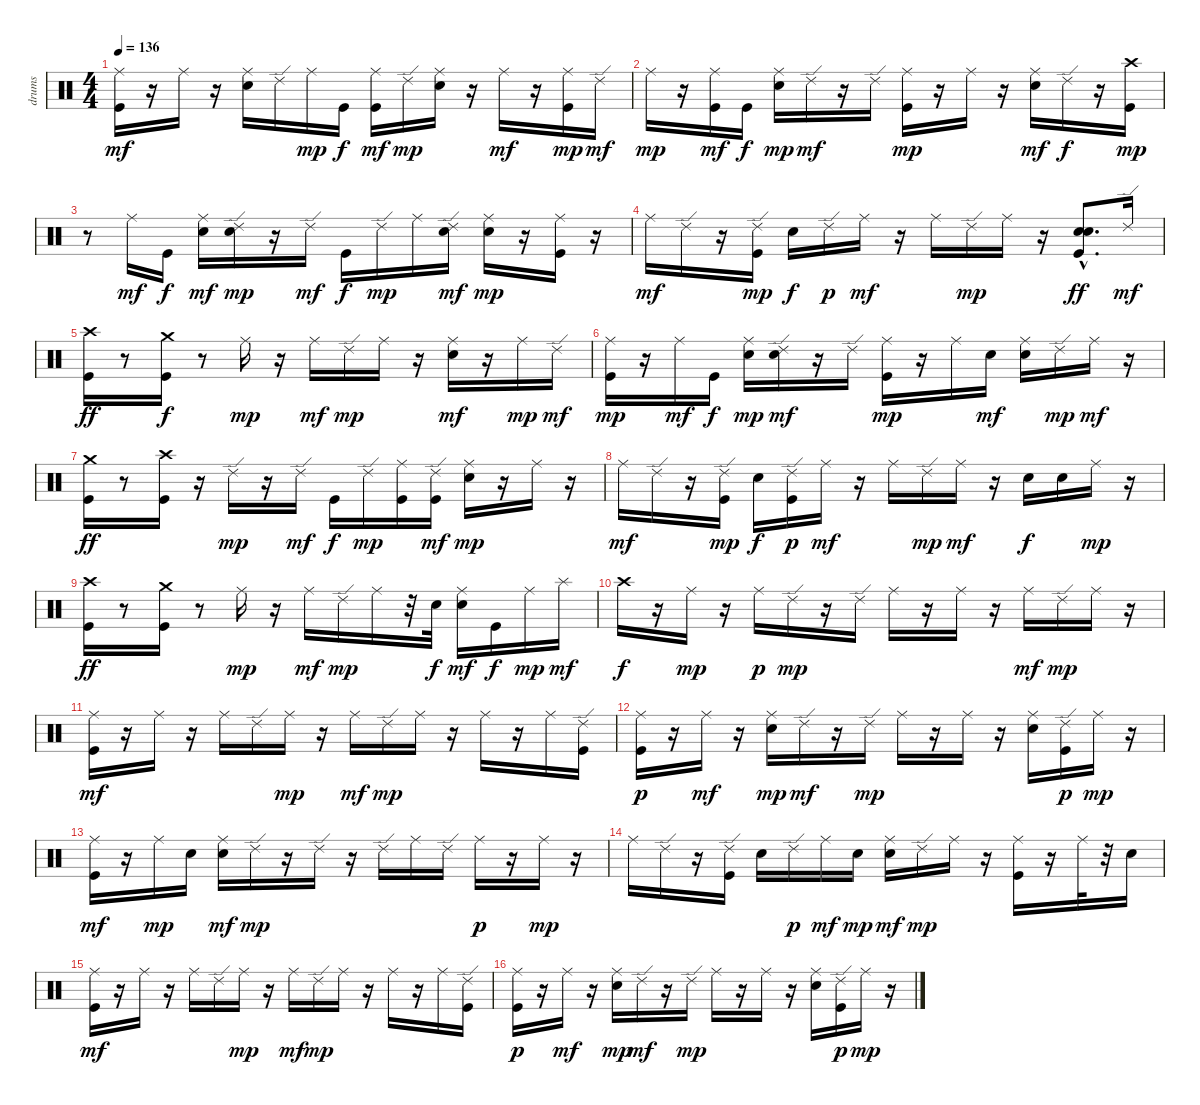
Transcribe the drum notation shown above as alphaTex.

\track ("drums   " "drums   ") {instrument percussion}
\staff {score}
\articulation defaults
\ts (4 4)
\tempo 136
\clef neutral
\ks c
("Kick (hit)" "Ride (middle)").16{dy mf} r.16 "Ride (middle)".16 r.16 ("Electric Snare (hit)" "Ride (middle)").16 "Ride (edge) 2".16 "Ride (middle)".16{dy mp} "Kick (hit)".16{dy f} ("Kick (hit)" "Ride (middle)").16{dy mf} "Ride (edge) 2".16{dy mp} ("Electric Snare (hit)" "Ride (middle)").16 r.16 "Ride (middle)".16{dy mf} r.16 ("Kick (hit)" "Ride (middle)").16{dy mp} "Ride (edge) 2".16{dy mf} |
"Ride (middle)".16{dy mp} r.16 ("Kick (hit)" "Ride (middle)").16{dy mf} "Kick (hit)".16{dy f} ("Electric Snare (hit)" "Ride (middle)").16{dy mp} "Ride (edge) 2".16{dy mf} r.16 "Ride (edge) 2".16 ("Kick (hit)" "Ride (middle)").16{dy mp} r.16 "Ride (middle)".16 r.16 ("Electric Snare (hit)" "Ride (middle)").16{dy mf} "Ride (edge) 2".16{dy f} r.16 ("Crash high (hit)" "Kick (hit)").16{dy mp} |
r.8 "Ride (middle)".16{dy mf} "Kick (hit)".16{dy f} ("Electric Snare (hit)" "Ride (middle)").16{dy mf} ("Electric Snare (hit)" "Ride (edge) 2").16{dy mp} r.16 "Ride (edge) 2".16{dy mf} "Kick (hit)".16{dy f} "Ride (edge) 2".16{dy mp} "Ride (middle)".16 ("Electric Snare (hit)" "Ride (edge) 2").16{dy mf} ("Electric Snare (hit)" "Ride (middle)").16{dy mp} r.16 ("Kick (hit)" "Ride (middle)").16 r.16 |
"Ride (middle)".16{dy mf} "Ride (edge) 2".16 r.16 ("Kick (hit)" "Ride (edge) 2").16{dy mp} "Electric Snare (hit)".16{dy f} "Ride (edge) 2".16{dy p} "Ride (middle)".16{dy mf} r.16 "Ride (middle)".16 "Ride (edge) 2".16{dy mp} "Ride (middle)".16 r.16 ("Electric Snare (hit)"{hac} "Kick (hit)" "Electric Snare (hit)").8{d dy ff} "Ride (edge) 2".16{dy mf} |
("Kick (hit)" "Crash high (hit)").16{dy ff} r.8 ("Kick (hit)" "Crash medium (hit)").16{dy f} r.8 "Ride (middle)".16{dy mp} r.16 "Ride (middle)".16{dy mf} "Ride (edge) 2".16{dy mp} "Ride (middle)".16 r.16 ("Electric Snare (hit)" "Ride (middle)").16{dy mf} r.16 "Ride (middle)".16{dy mp} "Ride (edge) 2".16{dy mf} |
("Kick (hit)" "Ride (middle)").16{dy mp} r.16 "Ride (middle)".16{dy mf} "Kick (hit)".16{dy f} ("Electric Snare (hit)" "Ride (middle)").16{dy mp} ("Electric Snare (hit)" "Ride (edge) 2").16{dy mf} r.16 "Ride (edge) 2".16 ("Kick (hit)" "Ride (middle)").16{dy mp} r.16 "Ride (middle)".16 "Electric Snare (hit)".16{dy mf} ("Electric Snare (hit)" "Ride (middle)").16 "Ride (edge) 2".16{dy mp} "Ride (middle)".16{dy mf} r.16 |
("Kick (hit)" "Crash medium (hit)").16{dy ff} r.8 ("Kick (hit)" "Crash high (hit)").16 r.16 "Ride (edge) 2".16{dy mp} r.16 "Ride (edge) 2".16{dy mf} "Kick (hit)".16{dy f} "Ride (edge) 2".16{dy mp} ("Kick (hit)" "Ride (middle)").16 ("Kick (hit)" "Ride (edge) 2").16{dy mf} ("Electric Snare (hit)" "Ride (middle)").16{dy mp} r.16 "Ride (middle)".16 r.16 |
"Ride (middle)".16{dy mf} "Ride (edge) 2".16 r.16 ("Kick (hit)" "Ride (edge) 2").16{dy mp} "Electric Snare (hit)".16{dy f} ("Kick (hit)" "Ride (edge) 2").16{dy p} "Ride (middle)".16{dy mf} r.16 "Ride (middle)".16 "Ride (edge) 2".16{dy mp} "Ride (middle)".16{dy mf} r.16 "Electric Snare (hit)".16{dy f} "Electric Snare (hit)".16 "Ride (middle)".16{dy mp} r.16 |
("Kick (hit)" "Crash high (hit)").16{dy ff} r.8 ("Kick (hit)" "Crash medium (hit)").16 r.8 "Ride (middle)".16{dy mp} r.16 "Ride (middle)".16{dy mf} "Ride (edge) 2".16{dy mp} "Ride (middle)".16 r.32 "Electric Snare (hit)".32{dy f} ("Electric Snare (hit)" "Ride (middle)").16{dy mf} "Kick (hit)".16{dy f} "Ride (middle)".16{dy mp} "Splash (hit)".16{dy mf} |
"Crash high (hit)".16{dy f} r.16 "Ride (middle)".16{dy mp} r.16 "Ride (middle)".16{dy p} "Ride (edge) 2".16{dy mp} r.16 "Ride (edge) 2".16 "Ride (middle)".16 r.16 "Ride (middle)".16 r.16 "Ride (middle)".16{dy mf} "Ride (edge) 2".16{dy mp} "Ride (middle)".16 r.16 |
("Kick (hit)" "Ride (middle)").16{dy mf} r.16 "Ride (middle)".16 r.16 "Ride (middle)".16 "Ride (edge) 2".16 "Ride (middle)".16{dy mp} r.16 "Ride (middle)".16{dy mf} "Ride (edge) 2".16{dy mp} "Ride (middle)".16 r.16 "Ride (middle)".16 r.16 "Ride (middle)".16 ("Kick (hit)" "Ride (edge) 2").16 |
("Kick (hit)" "Ride (middle)").16{dy p} r.16 "Ride (middle)".16{dy mf} r.16 ("Electric Snare (hit)" "Ride (middle)").16{dy mp} "Ride (edge) 2".16{dy mf} r.16 "Ride (edge) 2".16{dy mp} "Ride (middle)".16 r.16 "Ride (middle)".16 r.16 ("Electric Snare (hit)" "Ride (middle)").16 ("Kick (hit)" "Ride (edge) 2").16{dy p} "Ride (middle)".16{dy mp} r.16 |
("Kick (hit)" "Ride (middle)").16{dy mf} r.16 "Ride (middle)".16{dy mp} "Electric Snare (hit)".16 ("Electric Snare (hit)" "Ride (middle)").16{dy mf} "Ride (edge) 2".16{dy mp} r.16 "Ride (edge) 2".16 r.16 "Ride (edge) 2".16 "Ride (middle)".16 "Ride (edge) 2".16 "Ride (middle)".16{dy p} r.16 "Ride (middle)".16{dy mp} r.16 |
"Ride (middle)".16 "Ride (edge) 2".16 r.16 ("Kick (hit)" "Ride (edge) 2").16 "Electric Snare (hit)".16 "Ride (edge) 2".16{dy p} "Ride (middle)".16{dy mf} "Electric Snare (hit)".16{dy mp} ("Electric Snare (hit)" "Ride (middle)").16{dy mf} "Ride (edge) 2".16{dy mp} "Ride (middle)".16 r.16 ("Kick (hit)" "Ride (middle)").16 r.16 "Ride (middle)".32 r.32 "Electric Snare (hit)".16 |
("Kick (hit)" "Ride (middle)").16{dy mf} r.16 "Ride (middle)".16 r.16 "Ride (middle)".16 "Ride (edge) 2".16 "Ride (middle)".16{dy mp} r.16 "Ride (middle)".16{dy mf} "Ride (edge) 2".16{dy mp} "Ride (middle)".16 r.16 "Ride (middle)".16 r.16 "Ride (middle)".16 ("Kick (hit)" "Ride (edge) 2").16 |
("Kick (hit)" "Ride (middle)").16{dy p} r.16 "Ride (middle)".16{dy mf} r.16 ("Electric Snare (hit)" "Ride (middle)").16{dy mp} "Ride (edge) 2".16{dy mf} r.16 "Ride (edge) 2".16{dy mp} "Ride (middle)".16 r.16 "Ride (middle)".16 r.16 ("Electric Snare (hit)" "Ride (middle)").16 ("Kick (hit)" "Ride (edge) 2").16{dy p} "Ride (middle)".16{dy mp} r.16
